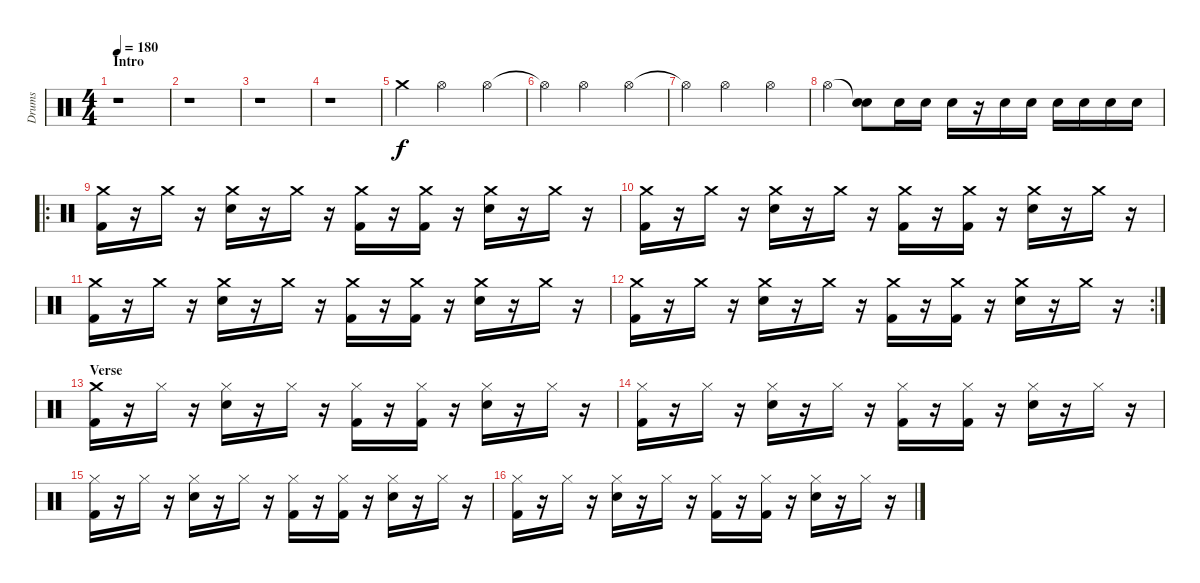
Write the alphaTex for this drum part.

\track ("Drums" "Drums") {instrument percussion}
\staff {score}
\articulation defaults
\ts (4 4)
\section ("" "Intro")
\tempo 180
\clef neutral
\ks c
r.1{dy f} |
r.1 |
r.1 |
r.1 |
"Crash medium (hit)".4 "Hi-Hat (open)".2 "Hi-Hat (open)".4 |
"Hi-Hat (open)"{t}.4 "Hi-Hat (open)".2 "Hi-Hat (open)".4 |
"Hi-Hat (open)"{t}.4 "Hi-Hat (open)".2 "Hi-Hat (open)".4 |
"Hi-Hat (open)".4 ("Snare (hit)"{t} "Electric Snare (hit)").8 "Electric Snare (hit)".16 "Electric Snare (hit)".16 "Electric Snare (hit)".16 r.16 "Electric Snare (hit)".16 "Electric Snare (hit)".16 "Electric Snare (hit)".16 "Electric Snare (hit)".16 "Electric Snare (hit)".16 "Electric Snare (hit)".16 |
\ro
("Crash medium (hit)" "Kick (hit) 2").16 r.16 "Crash medium (hit)".16 r.16 ("Crash medium (hit)" "Electric Snare (hit)").16 r.16 "Crash medium (hit)".16 r.16 ("Crash medium (hit)" "Kick (hit) 2").16 r.16 ("Crash medium (hit)" "Kick (hit) 2").16 r.16 ("Crash medium (hit)" "Electric Snare (hit)").16 r.16 "Crash medium (hit)".16 r.16 |
("Crash medium (hit)" "Kick (hit) 2").16 r.16 "Crash medium (hit)".16 r.16 ("Crash medium (hit)" "Electric Snare (hit)").16 r.16 "Crash medium (hit)".16 r.16 ("Crash medium (hit)" "Kick (hit) 2").16 r.16 ("Crash medium (hit)" "Kick (hit) 2").16 r.16 ("Crash medium (hit)" "Electric Snare (hit)").16 r.16 "Crash medium (hit)".16 r.16 |
("Crash medium (hit)" "Kick (hit) 2").16 r.16 "Crash medium (hit)".16 r.16 ("Crash medium (hit)" "Electric Snare (hit)").16 r.16 "Crash medium (hit)".16 r.16 ("Crash medium (hit)" "Kick (hit) 2").16 r.16 ("Crash medium (hit)" "Kick (hit) 2").16 r.16 ("Crash medium (hit)" "Electric Snare (hit)").16 r.16 "Crash medium (hit)".16 r.16 |
\rc 2
("Crash medium (hit)" "Kick (hit) 2").16 r.16 "Crash medium (hit)".16 r.16 ("Crash medium (hit)" "Electric Snare (hit)").16 r.16 "Crash medium (hit)".16 r.16 ("Crash medium (hit)" "Kick (hit) 2").16 r.16 ("Crash medium (hit)" "Kick (hit) 2").16 r.16 ("Crash medium (hit)" "Electric Snare (hit)").16 r.16 "Crash medium (hit)".16 r.16 |
\section ("" "Verse")
("Crash medium (hit)" "Kick (hit) 2").16 r.16 "Hi-Hat (closed)".16 r.16 ("Hi-Hat (closed)" "Electric Snare (hit)").16 r.16 "Hi-Hat (closed)".16 r.16 ("Hi-Hat (closed)" "Kick (hit) 2").16 r.16 ("Hi-Hat (closed)" "Kick (hit) 2").16 r.16 ("Hi-Hat (closed)" "Electric Snare (hit)").16 r.16 "Hi-Hat (closed)".16 r.16 |
("Hi-Hat (closed)" "Kick (hit) 2").16 r.16 "Hi-Hat (closed)".16 r.16 ("Hi-Hat (closed)" "Electric Snare (hit)").16 r.16 "Hi-Hat (closed)".16 r.16 ("Hi-Hat (closed)" "Kick (hit) 2").16 r.16 ("Hi-Hat (closed)" "Kick (hit) 2").16 r.16 ("Hi-Hat (closed)" "Electric Snare (hit)").16 r.16 "Hi-Hat (closed)".16 r.16 |
("Hi-Hat (closed)" "Kick (hit) 2").16 r.16 "Hi-Hat (closed)".16 r.16 ("Hi-Hat (closed)" "Electric Snare (hit)").16 r.16 "Hi-Hat (closed)".16 r.16 ("Hi-Hat (closed)" "Kick (hit) 2").16 r.16 ("Hi-Hat (closed)" "Kick (hit) 2").16 r.16 ("Hi-Hat (closed)" "Electric Snare (hit)").16 r.16 "Hi-Hat (closed)".16 r.16 |
("Hi-Hat (closed)" "Kick (hit) 2").16 r.16 "Hi-Hat (closed)".16 r.16 ("Hi-Hat (closed)" "Electric Snare (hit)").16 r.16 "Hi-Hat (closed)".16 r.16 ("Hi-Hat (closed)" "Kick (hit) 2").16 r.16 ("Hi-Hat (closed)" "Kick (hit) 2").16 r.16 ("Hi-Hat (closed)" "Electric Snare (hit)").16 r.16 "Hi-Hat (closed)".16 r.16
